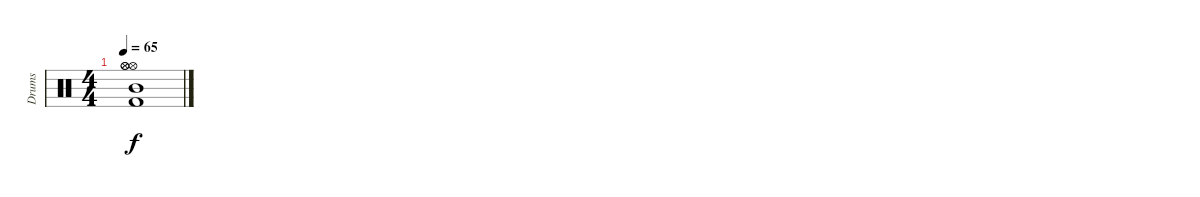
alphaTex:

\track ("Drums" "Drums") {instrument percussion}
\staff {score}
\articulation defaults
\ts (4 4)
\tempo 65
\clef neutral
\ks c
("Hi-Hat (open)" "Kick (hit) 2" "Hi-Hat (open)" "Mid Tom (hit)" "Hi-Hat (open)").1{dy f}
